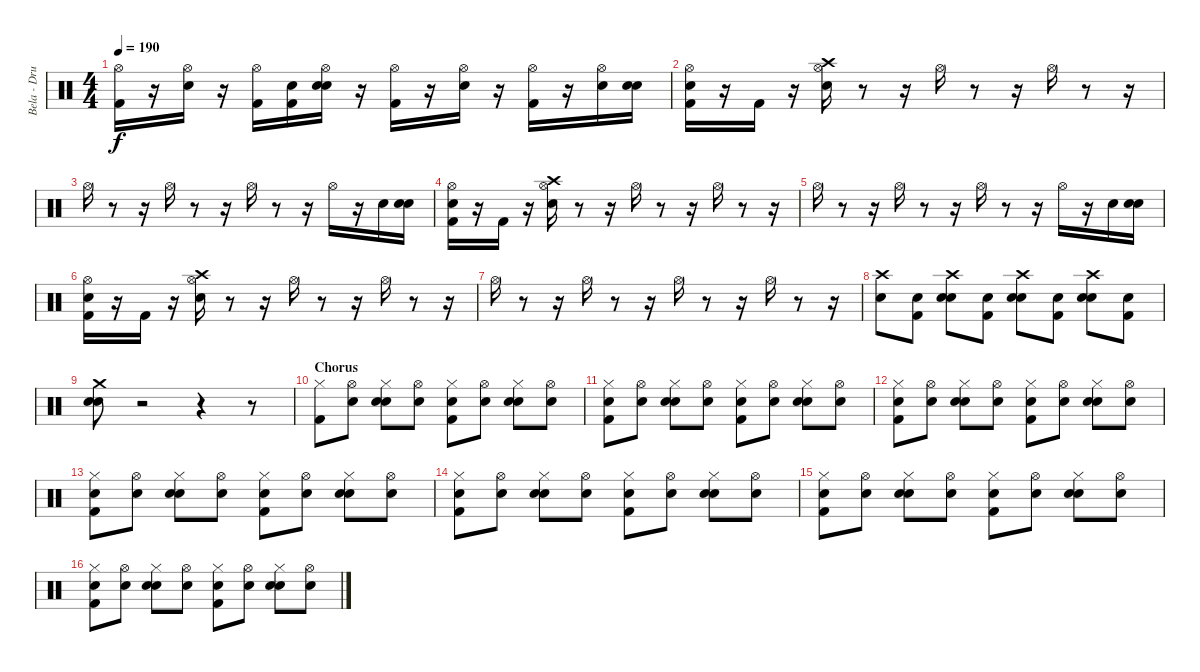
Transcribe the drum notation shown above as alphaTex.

\track ("Bela - Drums" "Bela - Dru") {instrument percussion}
\staff {score}
\articulation defaults
\ts (4 4)
\tempo 190
\clef neutral
\ks c
("Hi-Hat (open)" "Kick (hit) 2").16{dy f} r.16 ("Hi-Hat (open)" "Electric Snare (hit)").16 r.16 ("Hi-Hat (open)" "Kick (hit) 2").16 ("Snare (hit)" "Kick (hit) 2").16 ("Snare (hit)" "Hi-Hat (open)" "Electric Snare (hit)").16 r.16 ("Kick (hit) 2" "Hi-Hat (open)").16 r.16 ("Hi-Hat (open)" "Electric Snare (hit)").16 r.16 ("Hi-Hat (open)" "Kick (hit) 2").16 r.16 ("Hi-Hat (open)" "Electric Snare (hit)").16 ("Snare (hit)" "Electric Snare (hit)").16 |
("Snare (hit)" "Hi-Hat (open)" "Kick (hit) 2").16 r.16 "Kick (hit) 2".16 r.16 ("Hi-Hat (open)" "Crash high (hit)" "Electric Snare (hit)").16 r.8 r.16 "Hi-Hat (open)".16 r.8 r.16 "Hi-Hat (open)".16 r.8 r.16 |
"Hi-Hat (open)".16 r.8 r.16 "Hi-Hat (open)".16 r.8 r.16 "Hi-Hat (open)".16 r.8 r.16 "Hi-Hat (open)".16 r.16 "Electric Snare (hit)".16 ("Snare (hit)" "Electric Snare (hit)").16 |
("Snare (hit)" "Hi-Hat (open)" "Kick (hit) 2").16 r.16 "Kick (hit) 2".16 r.16 ("Hi-Hat (open)" "Crash high (hit)" "Electric Snare (hit)").16 r.8 r.16 "Hi-Hat (open)".16 r.8 r.16 "Hi-Hat (open)".16 r.8 r.16 |
"Hi-Hat (open)".16 r.8 r.16 "Hi-Hat (open)".16 r.8 r.16 "Hi-Hat (open)".16 r.8 r.16 "Hi-Hat (open)".16 r.16 "Electric Snare (hit)".16 ("Snare (hit)" "Electric Snare (hit)").16 |
("Snare (hit)" "Hi-Hat (open)" "Kick (hit) 2").16 r.16 "Kick (hit) 2".16 r.16 ("Hi-Hat (open)" "Crash high (hit)" "Electric Snare (hit)").16 r.8 r.16 "Hi-Hat (open)".16 r.8 r.16 "Hi-Hat (open)".16 r.8 r.16 |
"Hi-Hat (open)".16 r.8 r.16 "Hi-Hat (open)".16 r.8 r.16 "Hi-Hat (open)".16 r.8 r.16 "Hi-Hat (open)".16 r.8 r.16 |
("Crash high (hit)" "Electric Snare (hit)").8 ("Snare (hit)" "Kick (hit) 2").8 ("Snare (hit)" "Crash high (hit)" "Electric Snare (hit)").8 ("Snare (hit)" "Kick (hit) 2").8 ("Snare (hit)" "Crash high (hit)" "Electric Snare (hit)").8 ("Snare (hit)" "Kick (hit) 2").8 ("Snare (hit)" "Crash high (hit)" "Electric Snare (hit)").8 ("Snare (hit)" "Kick (hit) 2").8 |
("Snare (hit)" "Crash medium (hit)" "Electric Snare (hit)").8 r.2 r.4 r.8 |
\section ("" "Chorus")
("Hi-Hat (closed)" "Kick (hit) 2").8 ("Snare (hit)" "Hi-Hat (open)").8 ("Snare (hit)" "Hi-Hat (closed)" "Snare (hit) 2").8 ("Snare (hit)" "Hi-Hat (open)").8 ("Snare (hit)" "Hi-Hat (closed)" "Kick (hit) 2").8 ("Snare (hit)" "Hi-Hat (open)").8 ("Snare (hit)" "Hi-Hat (closed)" "Snare (hit) 2").8 ("Snare (hit)" "Hi-Hat (open)").8 |
("Snare (hit)" "Hi-Hat (closed)" "Kick (hit) 2").8 ("Snare (hit)" "Hi-Hat (open)").8 ("Snare (hit)" "Hi-Hat (closed)" "Snare (hit) 2").8 ("Snare (hit)" "Hi-Hat (open)").8 ("Snare (hit)" "Hi-Hat (closed)" "Kick (hit) 2").8 ("Snare (hit)" "Hi-Hat (open)").8 ("Snare (hit)" "Hi-Hat (closed)" "Snare (hit) 2").8 ("Snare (hit)" "Hi-Hat (open)").8 |
("Snare (hit)" "Hi-Hat (closed)" "Kick (hit) 2").8 ("Snare (hit)" "Hi-Hat (open)").8 ("Snare (hit)" "Hi-Hat (closed)" "Snare (hit) 2").8 ("Snare (hit)" "Hi-Hat (open)").8 ("Snare (hit)" "Hi-Hat (closed)" "Kick (hit) 2").8 ("Snare (hit)" "Hi-Hat (open)").8 ("Snare (hit)" "Hi-Hat (closed)" "Snare (hit) 2").8 ("Snare (hit)" "Hi-Hat (open)").8 |
("Snare (hit)" "Hi-Hat (closed)" "Kick (hit) 2").8 ("Snare (hit)" "Hi-Hat (open)").8 ("Snare (hit)" "Hi-Hat (closed)" "Snare (hit) 2").8 ("Snare (hit)" "Hi-Hat (open)").8 ("Snare (hit)" "Hi-Hat (closed)" "Kick (hit) 2").8 ("Snare (hit)" "Hi-Hat (open)").8 ("Snare (hit)" "Hi-Hat (closed)" "Snare (hit) 2").8 ("Snare (hit)" "Hi-Hat (open)").8 |
("Snare (hit)" "Hi-Hat (closed)" "Kick (hit) 2").8 ("Snare (hit)" "Hi-Hat (open)").8 ("Snare (hit)" "Hi-Hat (closed)" "Snare (hit) 2").8 ("Snare (hit)" "Hi-Hat (open)").8 ("Snare (hit)" "Hi-Hat (closed)" "Kick (hit) 2").8 ("Snare (hit)" "Hi-Hat (open)").8 ("Snare (hit)" "Hi-Hat (closed)" "Snare (hit) 2").8 ("Snare (hit)" "Hi-Hat (open)").8 |
("Snare (hit)" "Hi-Hat (closed)" "Kick (hit) 2").8 ("Snare (hit)" "Hi-Hat (open)").8 ("Snare (hit)" "Hi-Hat (closed)" "Snare (hit) 2").8 ("Snare (hit)" "Hi-Hat (open)").8 ("Snare (hit)" "Hi-Hat (closed)" "Kick (hit) 2").8 ("Snare (hit)" "Hi-Hat (open)").8 ("Snare (hit)" "Hi-Hat (closed)" "Snare (hit) 2").8 ("Snare (hit)" "Hi-Hat (open)").8 |
("Snare (hit)" "Hi-Hat (closed)" "Kick (hit) 2").8 ("Snare (hit)" "Hi-Hat (open)").8 ("Snare (hit)" "Hi-Hat (closed)" "Snare (hit) 2").8 ("Snare (hit)" "Hi-Hat (open)").8 ("Snare (hit)" "Hi-Hat (closed)" "Kick (hit) 2").8 ("Snare (hit)" "Hi-Hat (open)").8 ("Snare (hit)" "Hi-Hat (closed)" "Snare (hit) 2").8 ("Snare (hit)" "Hi-Hat (open)").8
